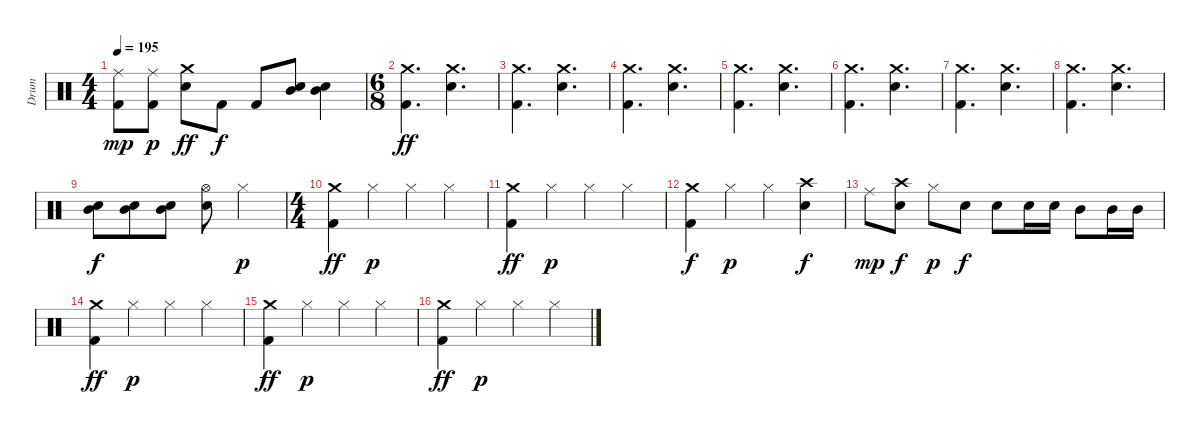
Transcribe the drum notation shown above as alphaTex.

\track ("Drum" "Drum") {instrument percussion}
\staff {score}
\articulation defaults
\ts (4 4)
\tempo 195
\clef neutral
\ks c
("Ride (middle)" "Kick (hit) 2").8{dy mp} ("Ride (middle)" "Kick (hit) 2").8{dy p} ("Crash medium (hit)" "Electric Snare (hit)").8{dy ff} "Kick (hit) 2".8{dy f} "Kick (hit) 2".8 ("Mid Tom (hit)" "Electric Snare (hit)").8 ("Mid Tom (hit)" "Electric Snare (hit)").4 |
\ts (6 8)
("Crash medium (hit)" "Kick (hit) 2").4{d dy ff} ("Crash medium (hit)" "Electric Snare (hit)").4{d} |
("Crash medium (hit)" "Kick (hit) 2").4{d} ("Crash medium (hit)" "Electric Snare (hit)").4{d} |
("Crash medium (hit)" "Kick (hit) 2").4{d} ("Crash medium (hit)" "Electric Snare (hit)").4{d} |
("Crash medium (hit)" "Kick (hit) 2").4{d} ("Crash medium (hit)" "Electric Snare (hit)").4{d} |
("Crash medium (hit)" "Kick (hit) 2").4{d} ("Crash medium (hit)" "Electric Snare (hit)").4{d} |
("Crash medium (hit)" "Kick (hit) 2").4{d} ("Crash medium (hit)" "Electric Snare (hit)").4{d} |
("Crash medium (hit)" "Kick (hit) 2").4{d} ("Crash medium (hit)" "Electric Snare (hit)").4{d} |
("Mid Tom (hit)" "Electric Snare (hit)").8{dy f} ("Mid Tom (hit)" "Electric Snare (hit)").8 ("Mid Tom (hit)" "Electric Snare (hit)").8 ("Hi-Hat (open)" "Electric Snare (hit)").8 "Hi-Hat (closed)".4{dy p} |
\ts (4 4)
("Crash medium (hit)" "Kick (hit) 2").4{dy ff} "Hi-Hat (closed)".4{dy p} "Hi-Hat (closed)".4 "Hi-Hat (closed)".4 |
("Crash medium (hit)" "Kick (hit) 2").4{dy ff} "Hi-Hat (closed)".4{dy p} "Hi-Hat (closed)".4 "Hi-Hat (closed)".4 |
("Crash medium (hit)" "Kick (hit) 2").4{dy f} "Hi-Hat (closed)".4{dy p} "Hi-Hat (closed)".4 ("Crash high (hit)" "Electric Snare (hit)").4{dy f} |
"Ride (middle)".8{dy mp} ("Crash high (hit)" "Electric Snare (hit)").8{dy f} "Hi-Hat (closed)".8{dy p} "Electric Snare (hit)".8{dy f} "Electric Snare (hit)".8 "Electric Snare (hit)".16 "Electric Snare (hit)".16 "Mid Tom (hit)".8 "Mid Tom (hit)".16 "Mid Tom (hit)".16 |
("Crash medium (hit)" "Kick (hit) 2").4{dy ff} "Hi-Hat (closed)".4{dy p} "Hi-Hat (closed)".4 "Hi-Hat (closed)".4 |
("Crash medium (hit)" "Kick (hit) 2").4{dy ff} "Hi-Hat (closed)".4{dy p} "Hi-Hat (closed)".4 "Hi-Hat (closed)".4 |
("Crash medium (hit)" "Kick (hit) 2").4{dy ff} "Hi-Hat (closed)".4{dy p} "Hi-Hat (closed)".4 "Hi-Hat (closed)".4
